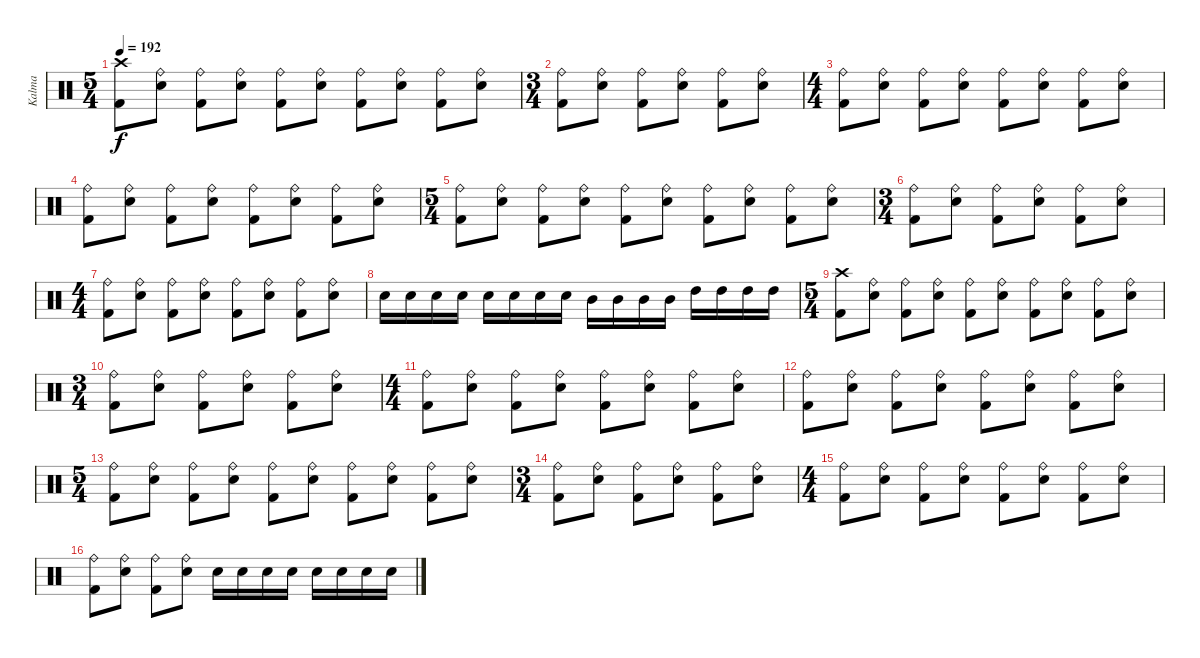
\track ("Kalma" "Kalma") {instrument percussion}
\staff {score}
\articulation defaults
\ts (5 4)
\tempo 192
\clef neutral
\ks c
("Crash high (hit)" "Kick (hit) 2").8{dy f} ("Ride (bell)" "Snare (hit) 2").8 ("Ride (bell)" "Kick (hit) 2").8 ("Ride (bell)" "Snare (hit) 2").8 ("Ride (bell)" "Kick (hit) 2").8 ("Ride (bell)" "Snare (hit) 2").8 ("Ride (bell)" "Kick (hit) 2").8 ("Ride (bell)" "Snare (hit) 2").8 ("Ride (bell)" "Kick (hit) 2").8 ("Ride (bell)" "Snare (hit) 2").8 |
\ts (3 4)
("Ride (bell)" "Kick (hit) 2").8 ("Ride (bell)" "Snare (hit) 2").8 ("Ride (bell)" "Kick (hit) 2").8 ("Ride (bell)" "Snare (hit) 2").8 ("Ride (bell)" "Kick (hit) 2").8 ("Ride (bell)" "Snare (hit) 2").8 |
\ts (4 4)
("Ride (bell)" "Kick (hit) 2").8 ("Ride (bell)" "Snare (hit) 2").8 ("Ride (bell)" "Kick (hit) 2").8 ("Ride (bell)" "Snare (hit) 2").8 ("Ride (bell)" "Kick (hit) 2").8 ("Ride (bell)" "Snare (hit) 2").8 ("Ride (bell)" "Kick (hit) 2").8 ("Ride (bell)" "Snare (hit) 2").8 |
("Ride (bell)" "Kick (hit) 2").8 ("Ride (bell)" "Snare (hit) 2").8 ("Ride (bell)" "Kick (hit) 2").8 ("Ride (bell)" "Snare (hit) 2").8 ("Ride (bell)" "Kick (hit) 2").8 ("Ride (bell)" "Snare (hit) 2").8 ("Ride (bell)" "Kick (hit) 2").8 ("Ride (bell)" "Snare (hit) 2").8 |
\ts (5 4)
("Ride (bell)" "Kick (hit) 2").8 ("Ride (bell)" "Snare (hit) 2").8 ("Ride (bell)" "Kick (hit) 2").8 ("Ride (bell)" "Snare (hit) 2").8 ("Ride (bell)" "Kick (hit) 2").8 ("Ride (bell)" "Snare (hit) 2").8 ("Ride (bell)" "Kick (hit) 2").8 ("Ride (bell)" "Snare (hit) 2").8 ("Ride (bell)" "Kick (hit) 2").8 ("Ride (bell)" "Snare (hit) 2").8 |
\ts (3 4)
("Ride (bell)" "Kick (hit) 2").8 ("Ride (bell)" "Snare (hit) 2").8 ("Ride (bell)" "Kick (hit) 2").8 ("Ride (bell)" "Snare (hit) 2").8 ("Ride (bell)" "Kick (hit) 2").8 ("Ride (bell)" "Snare (hit) 2").8 |
\ts (4 4)
("Ride (bell)" "Kick (hit) 2").8 ("Ride (bell)" "Snare (hit) 2").8 ("Ride (bell)" "Kick (hit) 2").8 ("Ride (bell)" "Snare (hit) 2").8 ("Ride (bell)" "Kick (hit) 2").8 ("Ride (bell)" "Snare (hit) 2").8 ("Ride (bell)" "Kick (hit) 2").8 ("Ride (bell)" "Snare (hit) 2").8 |
"Snare (hit) 2".16 "Snare (hit) 2".16 "Snare (hit) 2".16 "Snare (hit) 2".16 "Snare (hit) 2".16 "Snare (hit) 2".16 "Snare (hit) 2".16 "Snare (hit) 2".16 "Mid Tom (hit)".16 "Mid Tom (hit)".16 "Mid Tom (hit)".16 "Mid Tom (hit)".16 "High Tom (hit)".16 "High Tom (hit)".16 "High Tom (hit)".16 "High Tom (hit)".16 |
\ts (5 4)
("Crash high (hit)" "Kick (hit) 2").8 ("Ride (bell)" "Snare (hit) 2").8 ("Ride (bell)" "Kick (hit) 2").8 ("Ride (bell)" "Snare (hit) 2").8 ("Ride (bell)" "Kick (hit) 2").8 ("Ride (bell)" "Snare (hit) 2").8 ("Ride (bell)" "Kick (hit) 2").8 ("Ride (bell)" "Snare (hit) 2").8 ("Ride (bell)" "Kick (hit) 2").8 ("Ride (bell)" "Snare (hit) 2").8 |
\ts (3 4)
("Ride (bell)" "Kick (hit) 2").8 ("Ride (bell)" "Snare (hit) 2").8 ("Ride (bell)" "Kick (hit) 2").8 ("Ride (bell)" "Snare (hit) 2").8 ("Ride (bell)" "Kick (hit) 2").8 ("Ride (bell)" "Snare (hit) 2").8 |
\ts (4 4)
("Ride (bell)" "Kick (hit) 2").8 ("Ride (bell)" "Snare (hit) 2").8 ("Ride (bell)" "Kick (hit) 2").8 ("Ride (bell)" "Snare (hit) 2").8 ("Ride (bell)" "Kick (hit) 2").8 ("Ride (bell)" "Snare (hit) 2").8 ("Ride (bell)" "Kick (hit) 2").8 ("Ride (bell)" "Snare (hit) 2").8 |
("Ride (bell)" "Kick (hit) 2").8 ("Ride (bell)" "Snare (hit) 2").8 ("Ride (bell)" "Kick (hit) 2").8 ("Ride (bell)" "Snare (hit) 2").8 ("Ride (bell)" "Kick (hit) 2").8 ("Ride (bell)" "Snare (hit) 2").8 ("Ride (bell)" "Kick (hit) 2").8 ("Ride (bell)" "Snare (hit) 2").8 |
\ts (5 4)
("Ride (bell)" "Kick (hit) 2").8 ("Ride (bell)" "Snare (hit) 2").8 ("Ride (bell)" "Kick (hit) 2").8 ("Ride (bell)" "Snare (hit) 2").8 ("Ride (bell)" "Kick (hit) 2").8 ("Ride (bell)" "Snare (hit) 2").8 ("Ride (bell)" "Kick (hit) 2").8 ("Ride (bell)" "Snare (hit) 2").8 ("Ride (bell)" "Kick (hit) 2").8 ("Ride (bell)" "Snare (hit) 2").8 |
\ts (3 4)
("Ride (bell)" "Kick (hit) 2").8 ("Ride (bell)" "Snare (hit) 2").8 ("Ride (bell)" "Kick (hit) 2").8 ("Ride (bell)" "Snare (hit) 2").8 ("Ride (bell)" "Kick (hit) 2").8 ("Ride (bell)" "Snare (hit) 2").8 |
\ts (4 4)
("Ride (bell)" "Kick (hit) 2").8 ("Ride (bell)" "Snare (hit) 2").8 ("Ride (bell)" "Kick (hit) 2").8 ("Ride (bell)" "Snare (hit) 2").8 ("Ride (bell)" "Kick (hit) 2").8 ("Ride (bell)" "Snare (hit) 2").8 ("Ride (bell)" "Kick (hit) 2").8 ("Ride (bell)" "Snare (hit) 2").8 |
("Ride (bell)" "Kick (hit) 2").8 ("Ride (bell)" "Snare (hit) 2").8 ("Ride (bell)" "Kick (hit) 2").8 ("Ride (bell)" "Snare (hit) 2").8 "Snare (hit) 2".16 "Snare (hit) 2".16 "Snare (hit) 2".16 "Snare (hit) 2".16 "Snare (hit) 2".16 "Snare (hit) 2".16 "Snare (hit) 2".16 "Snare (hit) 2".16
